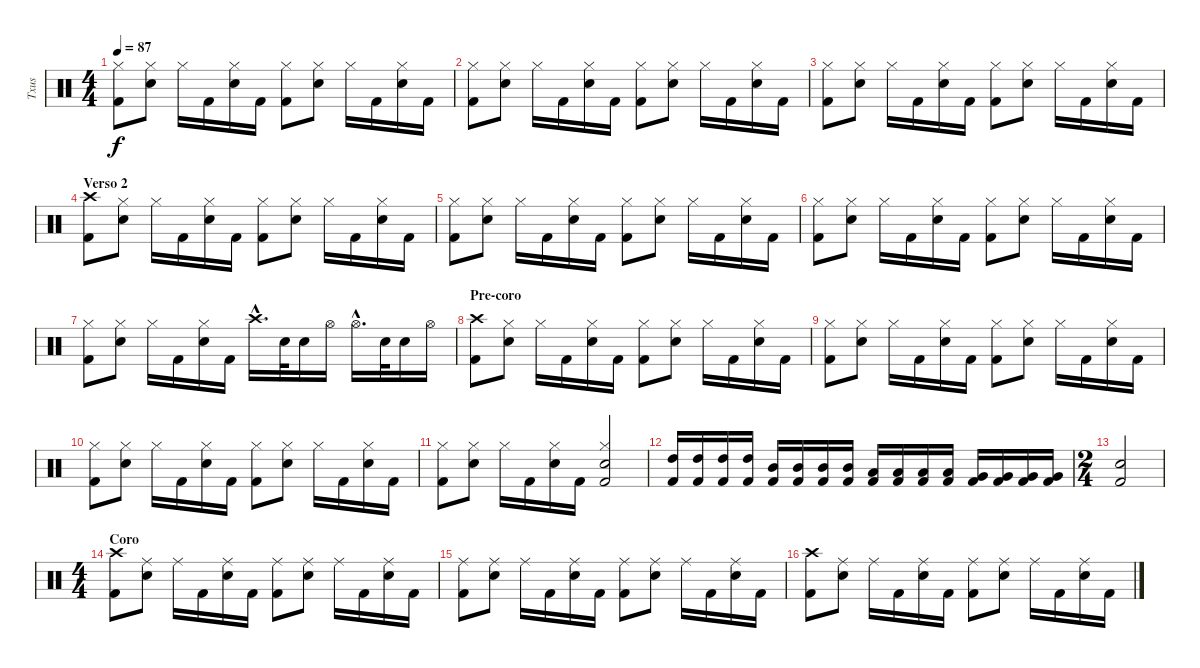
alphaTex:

\track ("Txus" "Txus") {instrument percussion}
\staff {score}
\articulation defaults
\ts (4 4)
\tempo 87
\clef neutral
\ks c
("Kick (hit) 2" "Hi-Hat (closed)").8{dy f} ("Electric Snare (hit)" "Hi-Hat (closed)").8 "Hi-Hat (closed)".16 "Kick (hit) 2".16 ("Electric Snare (hit)" "Hi-Hat (closed)").16 "Kick (hit) 2".16 ("Kick (hit) 2" "Hi-Hat (closed)").8 ("Electric Snare (hit)" "Hi-Hat (closed)").8 "Hi-Hat (closed)".16 "Kick (hit) 2".16 ("Electric Snare (hit)" "Hi-Hat (closed)").16 "Kick (hit) 2".16 |
("Kick (hit) 2" "Hi-Hat (closed)").8 ("Electric Snare (hit)" "Hi-Hat (closed)").8 "Hi-Hat (closed)".16 "Kick (hit) 2".16 ("Electric Snare (hit)" "Hi-Hat (closed)").16 "Kick (hit) 2".16 ("Kick (hit) 2" "Hi-Hat (closed)").8 ("Electric Snare (hit)" "Hi-Hat (closed)").8 "Hi-Hat (closed)".16 "Kick (hit) 2".16 ("Electric Snare (hit)" "Hi-Hat (closed)").16 "Kick (hit) 2".16 |
("Kick (hit) 2" "Hi-Hat (closed)").8 ("Electric Snare (hit)" "Hi-Hat (closed)").8 "Hi-Hat (closed)".16 "Kick (hit) 2".16 ("Electric Snare (hit)" "Hi-Hat (closed)").16 "Kick (hit) 2".16 ("Kick (hit) 2" "Hi-Hat (closed)").8 ("Electric Snare (hit)" "Hi-Hat (closed)").8 "Hi-Hat (closed)".16 "Kick (hit) 2".16 ("Electric Snare (hit)" "Hi-Hat (closed)").16 "Kick (hit) 2".16 |
\section ("" "Verso 2")
("Kick (hit) 2" "Crash high (hit)").8 ("Electric Snare (hit)" "Hi-Hat (closed)").8 "Hi-Hat (closed)".16 "Kick (hit) 2".16 ("Electric Snare (hit)" "Hi-Hat (closed)").16 "Kick (hit) 2".16 ("Kick (hit) 2" "Hi-Hat (closed)").8 ("Electric Snare (hit)" "Hi-Hat (closed)").8 "Hi-Hat (closed)".16 "Kick (hit) 2".16 ("Electric Snare (hit)" "Hi-Hat (closed)").16 "Kick (hit) 2".16 |
("Kick (hit) 2" "Hi-Hat (closed)").8 ("Electric Snare (hit)" "Hi-Hat (closed)").8 "Hi-Hat (closed)".16 "Kick (hit) 2".16 ("Electric Snare (hit)" "Hi-Hat (closed)").16 "Kick (hit) 2".16 ("Kick (hit) 2" "Hi-Hat (closed)").8 ("Electric Snare (hit)" "Hi-Hat (closed)").8 "Hi-Hat (closed)".16 "Kick (hit) 2".16 ("Electric Snare (hit)" "Hi-Hat (closed)").16 "Kick (hit) 2".16 |
("Kick (hit) 2" "Hi-Hat (closed)").8 ("Electric Snare (hit)" "Hi-Hat (closed)").8 "Hi-Hat (closed)".16 "Kick (hit) 2".16 ("Electric Snare (hit)" "Hi-Hat (closed)").16 "Kick (hit) 2".16 ("Kick (hit) 2" "Hi-Hat (closed)").8 ("Electric Snare (hit)" "Hi-Hat (closed)").8 "Hi-Hat (closed)".16 "Kick (hit) 2".16 ("Electric Snare (hit)" "Hi-Hat (closed)").16 "Kick (hit) 2".16 |
("Kick (hit) 2" "Hi-Hat (closed)").8 ("Electric Snare (hit)" "Hi-Hat (closed)").8 "Hi-Hat (closed)".16 "Kick (hit) 2".16 ("Electric Snare (hit)" "Hi-Hat (closed)").16 "Kick (hit) 2".16 "Crash high (hit)"{hac}.16{d} "Electric Snare (hit)".32 "Electric Snare (hit)".16 "Hi-Hat (open)".16 "Hi-Hat (open)"{hac}.16{d} "Electric Snare (hit)".32 "Electric Snare (hit)".16 "Hi-Hat (open)".16 |
\section ("" "Pre-coro")
("Kick (hit) 2" "Crash high (hit)").8 ("Electric Snare (hit)" "Hi-Hat (closed)").8 "Hi-Hat (closed)".16 "Kick (hit) 2".16 ("Electric Snare (hit)" "Hi-Hat (closed)").16 "Kick (hit) 2".16 ("Kick (hit) 2" "Hi-Hat (closed)").8 ("Electric Snare (hit)" "Hi-Hat (closed)").8 "Hi-Hat (closed)".16 "Kick (hit) 2".16 ("Electric Snare (hit)" "Hi-Hat (closed)").16 "Kick (hit) 2".16 |
("Kick (hit) 2" "Hi-Hat (closed)").8 ("Electric Snare (hit)" "Hi-Hat (closed)").8 "Hi-Hat (closed)".16 "Kick (hit) 2".16 ("Electric Snare (hit)" "Hi-Hat (closed)").16 "Kick (hit) 2".16 ("Kick (hit) 2" "Hi-Hat (closed)").8 ("Electric Snare (hit)" "Hi-Hat (closed)").8 "Hi-Hat (closed)".16 "Kick (hit) 2".16 ("Electric Snare (hit)" "Hi-Hat (closed)").16 "Kick (hit) 2".16 |
("Kick (hit) 2" "Hi-Hat (closed)").8 ("Electric Snare (hit)" "Hi-Hat (closed)").8 "Hi-Hat (closed)".16 "Kick (hit) 2".16 ("Electric Snare (hit)" "Hi-Hat (closed)").16 "Kick (hit) 2".16 ("Kick (hit) 2" "Hi-Hat (closed)").8 ("Electric Snare (hit)" "Hi-Hat (closed)").8 "Hi-Hat (closed)".16 "Kick (hit) 2".16 ("Electric Snare (hit)" "Hi-Hat (closed)").16 "Kick (hit) 2".16 |
("Kick (hit) 2" "Hi-Hat (closed)").8 ("Electric Snare (hit)" "Hi-Hat (closed)").8 "Hi-Hat (closed)".16 "Kick (hit) 2".16 ("Electric Snare (hit)" "Hi-Hat (closed)").16 "Kick (hit) 2".16 ("Kick (hit) 2" "Electric Snare (hit)" "Hi-Hat (closed)").2 |
("Kick (hit) 2" "High Tom (hit)").16 ("Kick (hit) 2" "High Tom (hit)").16 ("Kick (hit) 2" "High Tom (hit)").16 ("Kick (hit) 2" "High Tom (hit)").16 ("Kick (hit) 2" "Mid Tom (hit)").16 ("Kick (hit) 2" "Mid Tom (hit)").16 ("Kick (hit) 2" "Mid Tom (hit)").16 ("Kick (hit) 2" "Mid Tom (hit)").16 ("Kick (hit) 2" "Low Tom (hit)").16 ("Kick (hit) 2" "Low Tom (hit)").16 ("Kick (hit) 2" "Low Tom (hit)").16 ("Kick (hit) 2" "Low Tom (hit)").16 ("Kick (hit) 2" "Very Low Tom (hit)").16 ("Kick (hit) 2" "Very Low Tom (hit)").16 ("Kick (hit) 2" "Very Low Tom (hit)").16 ("Kick (hit) 2" "Very Low Tom (hit)").16 |
\ts (2 4)
("Kick (hit) 2" "Electric Snare (hit)").2 |
\ts (4 4)
\section ("" "Coro")
("Kick (hit) 2" "Crash high (hit)").8 ("Electric Snare (hit)" "Ride (middle)").8 "Ride (middle)".16 "Kick (hit) 2".16 ("Electric Snare (hit)" "Ride (middle)").16 "Kick (hit) 2".16 ("Kick (hit) 2" "Ride (middle)").8 ("Electric Snare (hit)" "Ride (middle)").8 "Ride (middle)".16 "Kick (hit) 2".16 ("Electric Snare (hit)" "Ride (middle)").16 "Kick (hit) 2".16 |
("Kick (hit) 2" "Ride (middle)").8 ("Electric Snare (hit)" "Ride (middle)").8 "Ride (middle)".16 "Kick (hit) 2".16 ("Electric Snare (hit)" "Ride (middle)").16 "Kick (hit) 2".16 ("Kick (hit) 2" "Ride (middle)").8 ("Electric Snare (hit)" "Ride (middle)").8 "Ride (middle)".16 "Kick (hit) 2".16 ("Electric Snare (hit)" "Ride (middle)").16 "Kick (hit) 2".16 |
("Kick (hit) 2" "Crash high (hit)").8 ("Electric Snare (hit)" "Ride (middle)").8 "Ride (middle)".16 "Kick (hit) 2".16 ("Electric Snare (hit)" "Ride (middle)").16 "Kick (hit) 2".16 ("Kick (hit) 2" "Ride (middle)").8 ("Electric Snare (hit)" "Ride (middle)").8 "Ride (middle)".16 "Kick (hit) 2".16 ("Electric Snare (hit)" "Ride (middle)").16 "Kick (hit) 2".16
